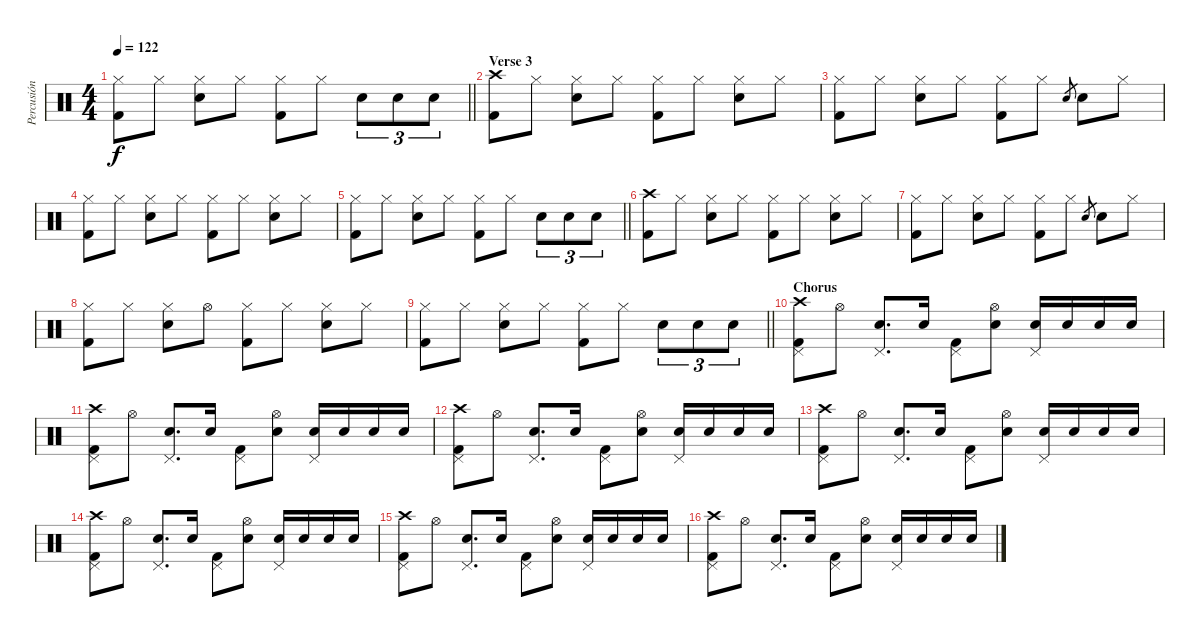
\track ("Percusión" "Percusión") {instrument percussion}
\staff {score}
\articulation defaults
\ts (4 4)
\tempo 122
\clef neutral
\barLineRight lightlight
\ks c
("Hi-Hat (closed)" "Kick (hit) 2").8{dy f} "Hi-Hat (closed)".8 ("Hi-Hat (closed)" "Electric Snare (hit)").8 "Hi-Hat (closed)".8 ("Hi-Hat (closed)" "Kick (hit) 2").8 "Hi-Hat (closed)".8 "Electric Snare (hit)".8{tu (3 2)} "Electric Snare (hit)".8{tu (3 2)} "Electric Snare (hit)".8{tu (3 2)} |
\section ("" "Verse 3")
("Crash high (hit)" "Kick (hit) 2").8 "Hi-Hat (closed)".8 ("Hi-Hat (closed)" "Electric Snare (hit)").8 "Hi-Hat (closed)".8 ("Hi-Hat (closed)" "Kick (hit) 2").8 "Hi-Hat (closed)".8 ("Hi-Hat (closed)" "Electric Snare (hit)").8 "Hi-Hat (closed)".8 |
("Hi-Hat (closed)" "Kick (hit) 2").8 "Hi-Hat (closed)".8 ("Hi-Hat (closed)" "Electric Snare (hit)").8 "Hi-Hat (closed)".8 ("Hi-Hat (closed)" "Kick (hit) 2").8 "Hi-Hat (closed)".8 "Electric Snare (hit)".8{gr} "Electric Snare (hit)".8 "Hi-Hat (closed)".8 |
("Hi-Hat (closed)" "Kick (hit) 2").8 "Hi-Hat (closed)".8 ("Hi-Hat (closed)" "Electric Snare (hit)").8 "Hi-Hat (closed)".8 ("Hi-Hat (closed)" "Kick (hit) 2").8 "Hi-Hat (closed)".8 ("Hi-Hat (closed)" "Electric Snare (hit)").8 "Hi-Hat (closed)".8 |
\barLineRight lightlight
("Hi-Hat (closed)" "Kick (hit) 2").8 "Hi-Hat (closed)".8 ("Hi-Hat (closed)" "Electric Snare (hit)").8 "Hi-Hat (closed)".8 ("Hi-Hat (closed)" "Kick (hit) 2").8 "Hi-Hat (closed)".8 "Electric Snare (hit)".8{tu (3 2)} "Electric Snare (hit)".8{tu (3 2)} "Electric Snare (hit)".8{tu (3 2)} |
("Crash high (hit)" "Kick (hit) 2").8 "Hi-Hat (closed)".8 ("Hi-Hat (closed)" "Electric Snare (hit)").8 "Hi-Hat (closed)".8 ("Hi-Hat (closed)" "Kick (hit) 2").8 "Hi-Hat (closed)".8 ("Hi-Hat (closed)" "Electric Snare (hit)").8 "Hi-Hat (closed)".8 |
("Hi-Hat (closed)" "Kick (hit) 2").8 "Hi-Hat (closed)".8 ("Hi-Hat (closed)" "Electric Snare (hit)").8 "Hi-Hat (closed)".8 ("Hi-Hat (closed)" "Kick (hit) 2").8 "Hi-Hat (closed)".8 "Electric Snare (hit)".8{gr} "Electric Snare (hit)".8 "Hi-Hat (closed)".8 |
("Hi-Hat (closed)" "Kick (hit) 2").8 "Hi-Hat (closed)".8 ("Hi-Hat (closed)" "Electric Snare (hit)").8 "Hi-Hat (open)".8 ("Hi-Hat (closed)" "Kick (hit) 2").8 "Hi-Hat (closed)".8 ("Hi-Hat (closed)" "Electric Snare (hit)").8 "Hi-Hat (closed)".8 |
\barLineRight lightlight
("Hi-Hat (closed)" "Kick (hit) 2").8 "Hi-Hat (closed)".8 ("Hi-Hat (closed)" "Electric Snare (hit)").8 "Hi-Hat (closed)".8 ("Hi-Hat (closed)" "Kick (hit) 2").8 "Hi-Hat (closed)".8 "Electric Snare (hit)".8{tu (3 2)} "Electric Snare (hit)".8{tu (3 2)} "Electric Snare (hit)".8{tu (3 2)} |
\section ("" "Chorus")
("Crash high (hit)" "Pedal Hi-Hat (hit)" "Kick (hit) 2").8 "Hi-Hat (open)".8 ("Pedal Hi-Hat (hit)" "Electric Snare (hit)").8{d} "Electric Snare (hit)".16 ("Pedal Hi-Hat (hit)" "Kick (hit) 2").8 ("Hi-Hat (open)" "Electric Snare (hit)").8 ("Pedal Hi-Hat (hit)" "Electric Snare (hit)").16 "Electric Snare (hit)".16 "Electric Snare (hit)".16 "Electric Snare (hit)".16 |
("Crash high (hit)" "Pedal Hi-Hat (hit)" "Kick (hit) 2").8 "Hi-Hat (open)".8 ("Pedal Hi-Hat (hit)" "Electric Snare (hit)").8{d} "Electric Snare (hit)".16 ("Pedal Hi-Hat (hit)" "Kick (hit) 2").8 ("Hi-Hat (open)" "Electric Snare (hit)").8 ("Pedal Hi-Hat (hit)" "Electric Snare (hit)").16 "Electric Snare (hit)".16 "Electric Snare (hit)".16 "Electric Snare (hit)".16 |
("Crash high (hit)" "Pedal Hi-Hat (hit)" "Kick (hit) 2").8 "Hi-Hat (open)".8 ("Pedal Hi-Hat (hit)" "Electric Snare (hit)").8{d} "Electric Snare (hit)".16 ("Pedal Hi-Hat (hit)" "Kick (hit) 2").8 ("Hi-Hat (open)" "Electric Snare (hit)").8 ("Pedal Hi-Hat (hit)" "Electric Snare (hit)").16 "Electric Snare (hit)".16 "Electric Snare (hit)".16 "Electric Snare (hit)".16 |
("Crash high (hit)" "Pedal Hi-Hat (hit)" "Kick (hit) 2").8 "Hi-Hat (open)".8 ("Pedal Hi-Hat (hit)" "Electric Snare (hit)").8{d} "Electric Snare (hit)".16 ("Pedal Hi-Hat (hit)" "Kick (hit) 2").8 ("Hi-Hat (open)" "Electric Snare (hit)").8 ("Pedal Hi-Hat (hit)" "Electric Snare (hit)").16 "Electric Snare (hit)".16 "Electric Snare (hit)".16 "Electric Snare (hit)".16 |
("Crash high (hit)" "Pedal Hi-Hat (hit)" "Kick (hit) 2").8 "Hi-Hat (open)".8 ("Pedal Hi-Hat (hit)" "Electric Snare (hit)").8{d} "Electric Snare (hit)".16 ("Pedal Hi-Hat (hit)" "Kick (hit) 2").8 ("Hi-Hat (open)" "Electric Snare (hit)").8 ("Pedal Hi-Hat (hit)" "Electric Snare (hit)").16 "Electric Snare (hit)".16 "Electric Snare (hit)".16 "Electric Snare (hit)".16 |
("Crash high (hit)" "Pedal Hi-Hat (hit)" "Kick (hit) 2").8 "Hi-Hat (open)".8 ("Pedal Hi-Hat (hit)" "Electric Snare (hit)").8{d} "Electric Snare (hit)".16 ("Pedal Hi-Hat (hit)" "Kick (hit) 2").8 ("Hi-Hat (open)" "Electric Snare (hit)").8 ("Pedal Hi-Hat (hit)" "Electric Snare (hit)").16 "Electric Snare (hit)".16 "Electric Snare (hit)".16 "Electric Snare (hit)".16 |
("Crash high (hit)" "Pedal Hi-Hat (hit)" "Kick (hit) 2").8 "Hi-Hat (open)".8 ("Pedal Hi-Hat (hit)" "Electric Snare (hit)").8{d} "Electric Snare (hit)".16 ("Pedal Hi-Hat (hit)" "Kick (hit) 2").8 ("Hi-Hat (open)" "Electric Snare (hit)").8 ("Pedal Hi-Hat (hit)" "Electric Snare (hit)").16 "Electric Snare (hit)".16 "Electric Snare (hit)".16 "Electric Snare (hit)".16
